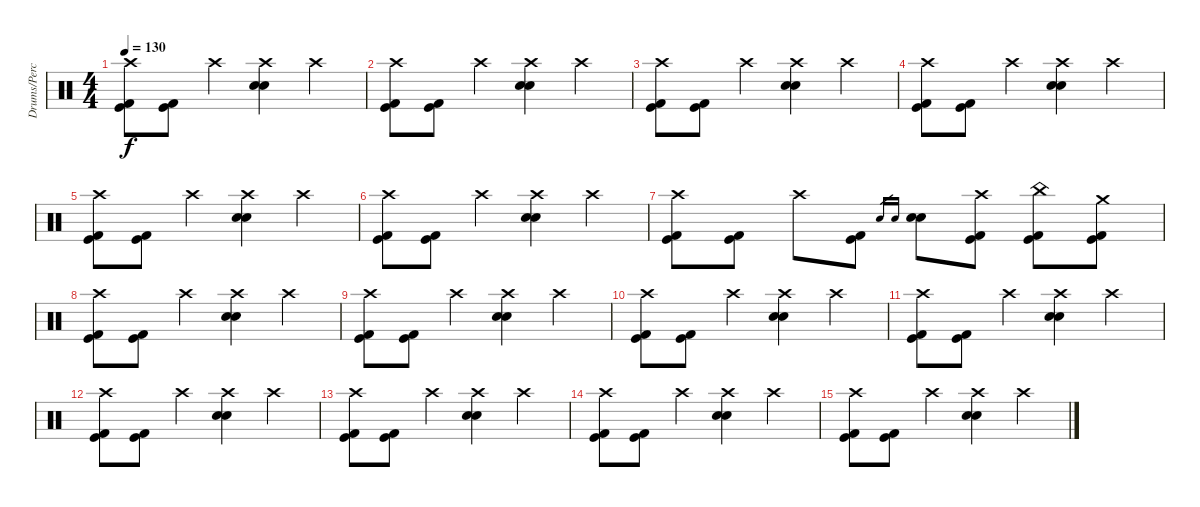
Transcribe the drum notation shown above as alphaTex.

\track ("Drums/Percussion" "Drums/Perc") {instrument percussion}
\staff {score}
\articulation defaults
\ts (4 4)
\tempo 130
\clef neutral
\ks c
("Crash high (hit)" "Kick (hit)" "Kick (hit) 2").8{dy f} ("Kick (hit)" "Kick (hit) 2").8 "Crash high (hit)".4 ("Crash high (hit)" "Electric Snare (hit)" "Snare (hit) 2").4 "Crash high (hit)".4 |
("Crash high (hit)" "Kick (hit)" "Kick (hit) 2").8 ("Kick (hit)" "Kick (hit) 2").8 "Crash high (hit)".4 ("Crash high (hit)" "Electric Snare (hit)" "Snare (hit) 2").4 "Crash high (hit)".4 |
("Crash high (hit)" "Kick (hit)" "Kick (hit) 2").8 ("Kick (hit)" "Kick (hit) 2").8 "Crash high (hit)".4 ("Crash high (hit)" "Electric Snare (hit)" "Snare (hit) 2").4 "Crash high (hit)".4 |
("Crash high (hit)" "Kick (hit)" "Kick (hit) 2").8 ("Kick (hit)" "Kick (hit) 2").8 "Crash high (hit)".4 ("Crash high (hit)" "Electric Snare (hit)" "Snare (hit) 2").4 "Crash high (hit)".4 |
("Crash high (hit)" "Kick (hit)" "Kick (hit) 2").8 ("Kick (hit)" "Kick (hit) 2").8 "Crash high (hit)".4 ("Crash high (hit)" "Electric Snare (hit)" "Snare (hit) 2").4 "Crash high (hit)".4 |
("Crash high (hit)" "Kick (hit)" "Kick (hit) 2").8 ("Kick (hit)" "Kick (hit) 2").8 "Crash high (hit)".4 ("Crash high (hit)" "Electric Snare (hit)" "Snare (hit) 2").4 "Crash high (hit)".4 |
("Crash high (hit)" "Kick (hit)" "Kick (hit) 2").8 ("Kick (hit)" "Kick (hit) 2").8 "Crash high (hit)".8 ("Kick (hit)" "Kick (hit) 2").8 "Electric Snare (hit)".16{gr} "Snare (hit) 2".16{gr} ("Electric Snare (hit)" "Snare (hit) 2").8 ("Crash high (hit)" "Kick (hit)" "Kick (hit) 2").8 ("China (hit)" "Kick (hit)" "Kick (hit) 2").8 ("Crash medium (hit)" "Kick (hit)" "Kick (hit) 2").8 |
("Crash high (hit)" "Kick (hit)" "Kick (hit) 2").8 ("Kick (hit)" "Kick (hit) 2").8 "Crash high (hit)".4 ("Crash high (hit)" "Electric Snare (hit)" "Snare (hit) 2").4 "Crash high (hit)".4 |
("Crash high (hit)" "Kick (hit)" "Kick (hit) 2").8 ("Kick (hit)" "Kick (hit) 2").8 "Crash high (hit)".4 ("Crash high (hit)" "Electric Snare (hit)" "Snare (hit) 2").4 "Crash high (hit)".4 |
("Crash high (hit)" "Kick (hit)" "Kick (hit) 2").8 ("Kick (hit)" "Kick (hit) 2").8 "Crash high (hit)".4 ("Crash high (hit)" "Electric Snare (hit)" "Snare (hit) 2").4 "Crash high (hit)".4 |
("Crash high (hit)" "Kick (hit)" "Kick (hit) 2").8 ("Kick (hit)" "Kick (hit) 2").8 "Crash high (hit)".4 ("Crash high (hit)" "Electric Snare (hit)" "Snare (hit) 2").4 "Crash high (hit)".4 |
("Crash high (hit)" "Kick (hit)" "Kick (hit) 2").8 ("Kick (hit)" "Kick (hit) 2").8 "Crash high (hit)".4 ("Crash high (hit)" "Electric Snare (hit)" "Snare (hit) 2").4 "Crash high (hit)".4 |
("Crash high (hit)" "Kick (hit)" "Kick (hit) 2").8 ("Kick (hit)" "Kick (hit) 2").8 "Crash high (hit)".4 ("Crash high (hit)" "Electric Snare (hit)" "Snare (hit) 2").4 "Crash high (hit)".4 |
("Crash high (hit)" "Kick (hit)" "Kick (hit) 2").8 ("Kick (hit)" "Kick (hit) 2").8 "Crash high (hit)".4 ("Crash high (hit)" "Electric Snare (hit)" "Snare (hit) 2").4 "Crash high (hit)".4 |
("Crash high (hit)" "Kick (hit)" "Kick (hit) 2").8 ("Kick (hit)" "Kick (hit) 2").8 "Crash high (hit)".4 ("Crash high (hit)" "Electric Snare (hit)" "Snare (hit) 2").4 "Crash high (hit)".4
